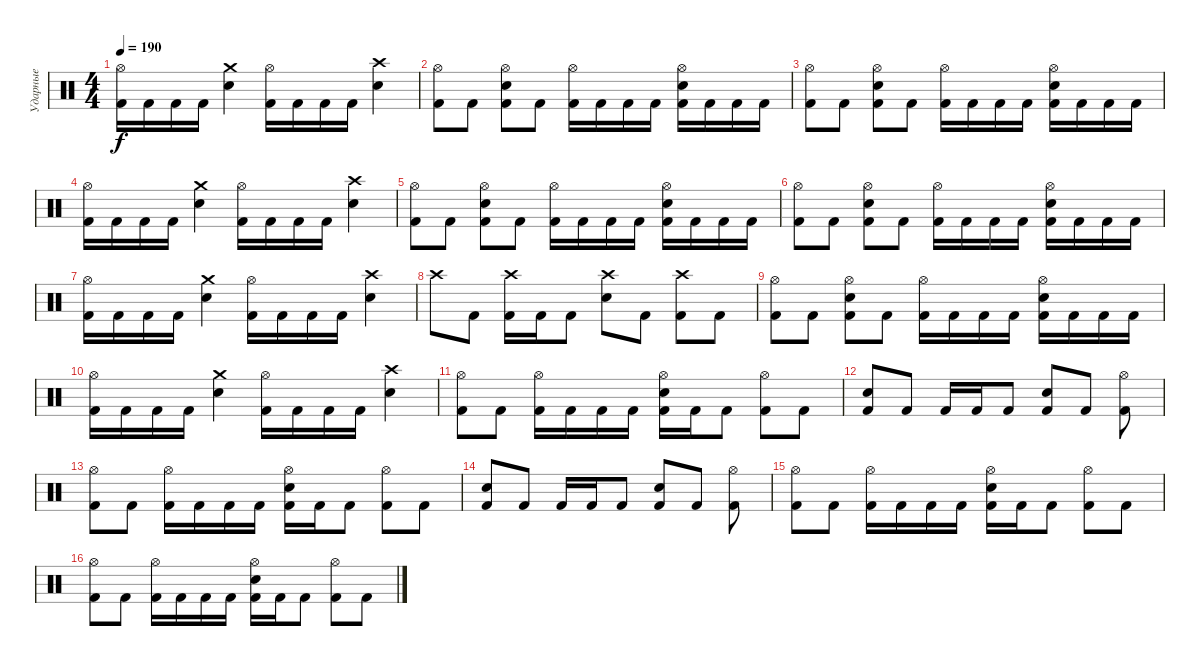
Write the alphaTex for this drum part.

\track ("Ударные" "Ударные") {instrument percussion}
\staff {score}
\articulation defaults
\ts (4 4)
\tempo 190
\clef neutral
\ks c
("Hi-Hat (open)" "Kick (hit) 2").16{dy f} "Kick (hit) 2".16 "Kick (hit) 2".16 "Kick (hit) 2".16 ("Crash medium (hit)" "Electric Snare (hit)").4 ("Hi-Hat (open)" "Kick (hit) 2").16 "Kick (hit) 2".16 "Kick (hit) 2".16 "Kick (hit) 2".16 ("Crash high (hit)" "Electric Snare (hit)").4 |
("Hi-Hat (open)" "Kick (hit) 2").8 "Kick (hit) 2".8 ("Hi-Hat (open)" "Electric Snare (hit)" "Kick (hit) 2").8 "Kick (hit) 2".8 ("Hi-Hat (open)" "Kick (hit) 2").16 "Kick (hit) 2".16 "Kick (hit) 2".16 "Kick (hit) 2".16 ("Hi-Hat (open)" "Electric Snare (hit)" "Kick (hit) 2").16 "Kick (hit) 2".16 "Kick (hit) 2".16 "Kick (hit) 2".16 |
("Hi-Hat (open)" "Kick (hit) 2").8 "Kick (hit) 2".8 ("Hi-Hat (open)" "Electric Snare (hit)" "Kick (hit) 2").8 "Kick (hit) 2".8 ("Hi-Hat (open)" "Kick (hit) 2").16 "Kick (hit) 2".16 "Kick (hit) 2".16 "Kick (hit) 2".16 ("Hi-Hat (open)" "Electric Snare (hit)" "Kick (hit) 2").16 "Kick (hit) 2".16 "Kick (hit) 2".16 "Kick (hit) 2".16 |
("Hi-Hat (open)" "Kick (hit) 2").16 "Kick (hit) 2".16 "Kick (hit) 2".16 "Kick (hit) 2".16 ("Crash medium (hit)" "Electric Snare (hit)").4 ("Hi-Hat (open)" "Kick (hit) 2").16 "Kick (hit) 2".16 "Kick (hit) 2".16 "Kick (hit) 2".16 ("Crash high (hit)" "Electric Snare (hit)").4 |
("Hi-Hat (open)" "Kick (hit) 2").8 "Kick (hit) 2".8 ("Hi-Hat (open)" "Electric Snare (hit)" "Kick (hit) 2").8 "Kick (hit) 2".8 ("Hi-Hat (open)" "Kick (hit) 2").16 "Kick (hit) 2".16 "Kick (hit) 2".16 "Kick (hit) 2".16 ("Hi-Hat (open)" "Electric Snare (hit)" "Kick (hit) 2").16 "Kick (hit) 2".16 "Kick (hit) 2".16 "Kick (hit) 2".16 |
("Hi-Hat (open)" "Kick (hit) 2").8 "Kick (hit) 2".8 ("Hi-Hat (open)" "Electric Snare (hit)" "Kick (hit) 2").8 "Kick (hit) 2".8 ("Hi-Hat (open)" "Kick (hit) 2").16 "Kick (hit) 2".16 "Kick (hit) 2".16 "Kick (hit) 2".16 ("Hi-Hat (open)" "Electric Snare (hit)" "Kick (hit) 2").16 "Kick (hit) 2".16 "Kick (hit) 2".16 "Kick (hit) 2".16 |
("Hi-Hat (open)" "Kick (hit) 2").16 "Kick (hit) 2".16 "Kick (hit) 2".16 "Kick (hit) 2".16 ("Crash medium (hit)" "Electric Snare (hit)").4 ("Hi-Hat (open)" "Kick (hit) 2").16 "Kick (hit) 2".16 "Kick (hit) 2".16 "Kick (hit) 2".16 ("Crash high (hit)" "Electric Snare (hit)").4 |
"Crash high (hit)".8 "Kick (hit) 2".8 ("Crash high (hit)" "Kick (hit) 2").16 "Kick (hit) 2".16 "Kick (hit) 2".8 ("Crash high (hit)" "Electric Snare (hit)").8 "Kick (hit) 2".8 ("Crash high (hit)" "Kick (hit) 2").8 "Kick (hit) 2".8 |
("Hi-Hat (open)" "Kick (hit) 2").8 "Kick (hit) 2".8 ("Hi-Hat (open)" "Electric Snare (hit)" "Kick (hit) 2").8 "Kick (hit) 2".8 ("Hi-Hat (open)" "Kick (hit) 2").16 "Kick (hit) 2".16 "Kick (hit) 2".16 "Kick (hit) 2".16 ("Hi-Hat (open)" "Electric Snare (hit)" "Kick (hit) 2").16 "Kick (hit) 2".16 "Kick (hit) 2".16 "Kick (hit) 2".16 |
("Hi-Hat (open)" "Kick (hit) 2").16 "Kick (hit) 2".16 "Kick (hit) 2".16 "Kick (hit) 2".16 ("Crash medium (hit)" "Electric Snare (hit)").4 ("Hi-Hat (open)" "Kick (hit) 2").16 "Kick (hit) 2".16 "Kick (hit) 2".16 "Kick (hit) 2".16 ("Crash high (hit)" "Electric Snare (hit)").4 |
("Kick (hit) 2" "Hi-Hat (open)").8 "Kick (hit) 2".8 ("Hi-Hat (open)" "Kick (hit) 2").16 "Kick (hit) 2".16 "Kick (hit) 2".16 "Kick (hit) 2".16 ("Hi-Hat (open)" "Electric Snare (hit)" "Kick (hit) 2").16 "Kick (hit) 2".16 "Kick (hit) 2".8 ("Hi-Hat (open)" "Kick (hit) 2").8 "Kick (hit) 2".8 |
("Kick (hit) 2" "Snare (hit) 2").8 "Kick (hit) 2".8 "Kick (hit) 2".16 "Kick (hit) 2".16 "Kick (hit) 2".8 ("Kick (hit) 2" "Snare (hit) 2").8 "Kick (hit) 2".8 ("Kick (hit) 2" "Hi-Hat (open)").8 |
("Kick (hit) 2" "Hi-Hat (open)").8 "Kick (hit) 2".8 ("Hi-Hat (open)" "Kick (hit) 2").16 "Kick (hit) 2".16 "Kick (hit) 2".16 "Kick (hit) 2".16 ("Hi-Hat (open)" "Electric Snare (hit)" "Kick (hit) 2").16 "Kick (hit) 2".16 "Kick (hit) 2".8 ("Hi-Hat (open)" "Kick (hit) 2").8 "Kick (hit) 2".8 |
("Kick (hit) 2" "Snare (hit) 2").8 "Kick (hit) 2".8 "Kick (hit) 2".16 "Kick (hit) 2".16 "Kick (hit) 2".8 ("Kick (hit) 2" "Snare (hit) 2").8 "Kick (hit) 2".8 ("Kick (hit) 2" "Hi-Hat (open)").8 |
("Kick (hit) 2" "Hi-Hat (open)").8 "Kick (hit) 2".8 ("Hi-Hat (open)" "Kick (hit) 2").16 "Kick (hit) 2".16 "Kick (hit) 2".16 "Kick (hit) 2".16 ("Hi-Hat (open)" "Electric Snare (hit)" "Kick (hit) 2").16 "Kick (hit) 2".16 "Kick (hit) 2".8 ("Hi-Hat (open)" "Kick (hit) 2").8 "Kick (hit) 2".8 |
("Kick (hit) 2" "Hi-Hat (open)").8 "Kick (hit) 2".8 ("Hi-Hat (open)" "Kick (hit) 2").16 "Kick (hit) 2".16 "Kick (hit) 2".16 "Kick (hit) 2".16 ("Hi-Hat (open)" "Electric Snare (hit)" "Kick (hit) 2").16 "Kick (hit) 2".16 "Kick (hit) 2".8 ("Hi-Hat (open)" "Kick (hit) 2").8 "Kick (hit) 2".8
